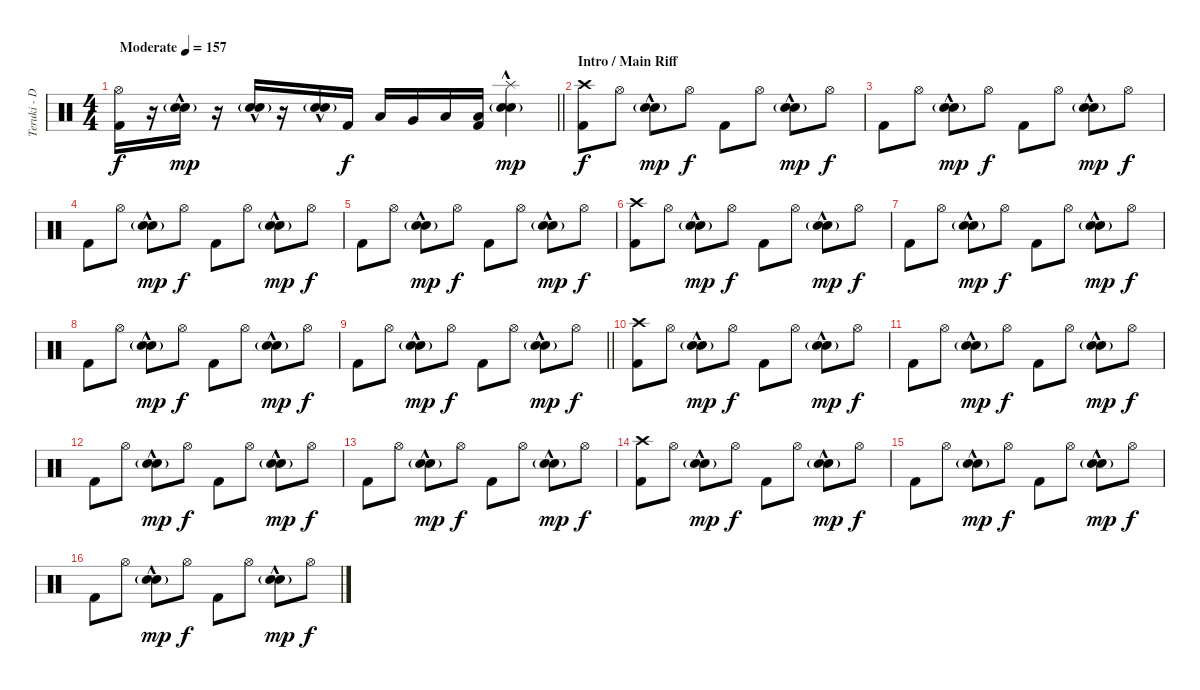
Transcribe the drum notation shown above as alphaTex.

\track ("Teruki - Drums" "Teruki - D") {instrument percussion}
\staff {score}
\articulation defaults
\ts (4 4)
\tempo (157 "Moderate")
\clef neutral
\barLineRight lightlight
\ks c
("Hi-Hat (open)" "Kick (hit) 2").16{dy f} r.16 ("Electric Snare (hit)"{hac} "Snare (hit) 2"{g}).16{dy mp} r.16 ("Electric Snare (hit)"{hac} "Snare (hit) 2"{g}).16 r.16 ("Electric Snare (hit)"{hac} "Snare (hit) 2"{g}).16 "Kick (hit) 2".16{dy f} "Low Tom (hit)".16 "Very Low Tom (hit)".16 "Low Floor Tom (hit)".16 ("Low Floor Tom (hit)" "Kick (hit) 2").16 ("Splash (hit)" "Electric Snare (hit)"{hac} "Snare (hit) 2"{g}).4{dy mp} |
\section ("" "Intro / Main Riff")
("Crash high (hit)" "Kick (hit) 2").8{dy f} "Hi-Hat (open)".8 ("Electric Snare (hit)"{hac} "Snare (hit) 2"{g}).8{dy mp} "Hi-Hat (open)".8{dy f} "Kick (hit) 2".8 "Hi-Hat (open)".8 ("Electric Snare (hit)"{hac} "Snare (hit) 2"{g}).8{dy mp} "Hi-Hat (open)".8{dy f} |
"Kick (hit) 2".8 "Hi-Hat (open)".8 ("Electric Snare (hit)"{hac} "Snare (hit) 2"{g}).8{dy mp} "Hi-Hat (open)".8{dy f} "Kick (hit) 2".8 "Hi-Hat (open)".8 ("Electric Snare (hit)"{hac} "Snare (hit) 2"{g}).8{dy mp} "Hi-Hat (open)".8{dy f} |
"Kick (hit) 2".8 "Hi-Hat (open)".8 ("Electric Snare (hit)"{hac} "Snare (hit) 2"{g}).8{dy mp} "Hi-Hat (open)".8{dy f} "Kick (hit) 2".8 "Hi-Hat (open)".8 ("Electric Snare (hit)"{hac} "Snare (hit) 2"{g}).8{dy mp} "Hi-Hat (open)".8{dy f} |
"Kick (hit) 2".8 "Hi-Hat (open)".8 ("Electric Snare (hit)"{hac} "Snare (hit) 2"{g}).8{dy mp} "Hi-Hat (open)".8{dy f} "Kick (hit) 2".8 "Hi-Hat (open)".8 ("Electric Snare (hit)"{hac} "Snare (hit) 2"{g}).8{dy mp} "Hi-Hat (open)".8{dy f} |
("Crash high (hit)" "Kick (hit) 2").8 "Hi-Hat (open)".8 ("Electric Snare (hit)"{hac} "Snare (hit) 2"{g}).8{dy mp} "Hi-Hat (open)".8{dy f} "Kick (hit) 2".8 "Hi-Hat (open)".8 ("Electric Snare (hit)"{hac} "Snare (hit) 2"{g}).8{dy mp} "Hi-Hat (open)".8{dy f} |
"Kick (hit) 2".8 "Hi-Hat (open)".8 ("Electric Snare (hit)"{hac} "Snare (hit) 2"{g}).8{dy mp} "Hi-Hat (open)".8{dy f} "Kick (hit) 2".8 "Hi-Hat (open)".8 ("Electric Snare (hit)"{hac} "Snare (hit) 2"{g}).8{dy mp} "Hi-Hat (open)".8{dy f} |
"Kick (hit) 2".8 "Hi-Hat (open)".8 ("Electric Snare (hit)"{hac} "Snare (hit) 2"{g}).8{dy mp} "Hi-Hat (open)".8{dy f} "Kick (hit) 2".8 "Hi-Hat (open)".8 ("Electric Snare (hit)"{hac} "Snare (hit) 2"{g}).8{dy mp} "Hi-Hat (open)".8{dy f} |
\barLineRight lightlight "Kick (hit) 2".8 "Hi-Hat (open)".8
("Electric Snare (hit)"{hac} "Snare (hit) 2"{g}).8{dy mp} "Hi-Hat (open)".8{dy f} "Kick (hit) 2".8 "Hi-Hat (open)".8 ("Electric Snare (hit)"{hac} "Snare (hit) 2"{g}).8{dy mp} "Hi-Hat (open)".8{dy f} |
\section ("" "")
("Crash high (hit)" "Kick (hit) 2").8 "Hi-Hat (open)".8 ("Electric Snare (hit)"{hac} "Snare (hit) 2"{g}).8{dy mp} "Hi-Hat (open)".8{dy f} "Kick (hit) 2".8 "Hi-Hat (open)".8 ("Electric Snare (hit)"{hac} "Snare (hit) 2"{g}).8{dy mp} "Hi-Hat (open)".8{dy f} |
"Kick (hit) 2".8 "Hi-Hat (open)".8 ("Electric Snare (hit)"{hac} "Snare (hit) 2"{g}).8{dy mp} "Hi-Hat (open)".8{dy f} "Kick (hit) 2".8 "Hi-Hat (open)".8 ("Electric Snare (hit)"{hac} "Snare (hit) 2"{g}).8{dy mp} "Hi-Hat (open)".8{dy f} |
"Kick (hit) 2".8 "Hi-Hat (open)".8 ("Electric Snare (hit)"{hac} "Snare (hit) 2"{g}).8{dy mp} "Hi-Hat (open)".8{dy f} "Kick (hit) 2".8 "Hi-Hat (open)".8 ("Electric Snare (hit)"{hac} "Snare (hit) 2"{g}).8{dy mp} "Hi-Hat (open)".8{dy f} |
"Kick (hit) 2".8 "Hi-Hat (open)".8 ("Electric Snare (hit)"{hac} "Snare (hit) 2"{g}).8{dy mp} "Hi-Hat (open)".8{dy f} "Kick (hit) 2".8 "Hi-Hat (open)".8 ("Electric Snare (hit)"{hac} "Snare (hit) 2"{g}).8{dy mp} "Hi-Hat (open)".8{dy f} |
("Crash high (hit)" "Kick (hit) 2").8 "Hi-Hat (open)".8 ("Electric Snare (hit)"{hac} "Snare (hit) 2"{g}).8{dy mp} "Hi-Hat (open)".8{dy f} "Kick (hit) 2".8 "Hi-Hat (open)".8 ("Electric Snare (hit)"{hac} "Snare (hit) 2"{g}).8{dy mp} "Hi-Hat (open)".8{dy f} |
"Kick (hit) 2".8 "Hi-Hat (open)".8 ("Electric Snare (hit)"{hac} "Snare (hit) 2"{g}).8{dy mp} "Hi-Hat (open)".8{dy f} "Kick (hit) 2".8 "Hi-Hat (open)".8 ("Electric Snare (hit)"{hac} "Snare (hit) 2"{g}).8{dy mp} "Hi-Hat (open)".8{dy f} |
"Kick (hit) 2".8 "Hi-Hat (open)".8 ("Electric Snare (hit)"{hac} "Snare (hit) 2"{g}).8{dy mp} "Hi-Hat (open)".8{dy f} "Kick (hit) 2".8 "Hi-Hat (open)".8 ("Electric Snare (hit)"{hac} "Snare (hit) 2"{g}).8{dy mp} "Hi-Hat (open)".8{dy f}
